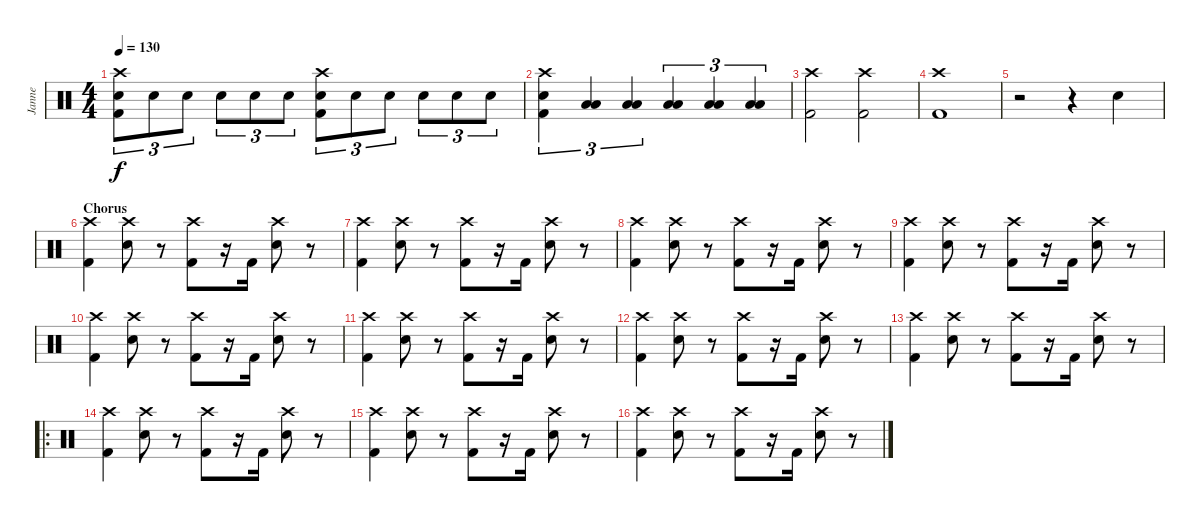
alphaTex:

\track ("Janne" "Janne") {instrument percussion}
\staff {score}
\articulation defaults
\ts (4 4)
\tempo 130
\clef neutral
\ks c
("Crash high (hit)" "Electric Snare (hit)" "Kick (hit) 2").8{tu (3 2) dy f} "Electric Snare (hit)".8{tu (3 2)} "Electric Snare (hit)".8{tu (3 2)} "Electric Snare (hit)".8{tu (3 2)} "Electric Snare (hit)".8{tu (3 2)} "Electric Snare (hit)".8{tu (3 2)} ("Crash high (hit)" "Electric Snare (hit)" "Kick (hit) 2").8{tu (3 2)} "Electric Snare (hit)".8{tu (3 2)} "Electric Snare (hit)".8{tu (3 2)} "Electric Snare (hit)".8{tu (3 2)} "Electric Snare (hit)".8{tu (3 2)} "Electric Snare (hit)".8{tu (3 2)} |
("Crash high (hit)" "Electric Snare (hit)" "Kick (hit) 2").4{tu (3 2)} ("Low Floor Tom (hit)" "Low Tom (hit)").4{tu (3 2)} ("Low Floor Tom (hit)" "Low Tom (hit)").4{tu (3 2)} ("Low Floor Tom (hit)" "Low Tom (hit)").4{tu (3 2)} ("Low Floor Tom (hit)" "Low Tom (hit)").4{tu (3 2)} ("Low Floor Tom (hit)" "Low Tom (hit)").4{tu (3 2)} |
("Crash high (hit)" "Kick (hit) 2").2 ("Crash high (hit)" "Kick (hit) 2").2 |
("Crash high (hit)" "Kick (hit) 2").1 |
r.2 r.4 "Electric Snare (hit)".4 |
\section ("" "Chorus")
("Crash high (hit)" "Kick (hit) 2").4 ("Crash high (hit)" "Electric Snare (hit)").8 r.8 ("Crash high (hit)" "Kick (hit) 2").8 r.16 "Kick (hit) 2".16 ("Crash high (hit)" "Electric Snare (hit)").8 r.8 |
("Crash high (hit)" "Kick (hit) 2").4 ("Crash high (hit)" "Electric Snare (hit)").8 r.8 ("Crash high (hit)" "Kick (hit) 2").8 r.16 "Kick (hit) 2".16 ("Crash high (hit)" "Electric Snare (hit)").8 r.8 |
("Crash high (hit)" "Kick (hit) 2").4 ("Crash high (hit)" "Electric Snare (hit)").8 r.8 ("Crash high (hit)" "Kick (hit) 2").8 r.16 "Kick (hit) 2".16 ("Crash high (hit)" "Electric Snare (hit)").8 r.8 |
("Crash high (hit)" "Kick (hit) 2").4 ("Crash high (hit)" "Electric Snare (hit)").8 r.8 ("Crash high (hit)" "Kick (hit) 2").8 r.16 "Kick (hit) 2".16 ("Crash high (hit)" "Electric Snare (hit)").8 r.8 |
("Crash high (hit)" "Kick (hit) 2").4 ("Crash high (hit)" "Electric Snare (hit)").8 r.8 ("Crash high (hit)" "Kick (hit) 2").8 r.16 "Kick (hit) 2".16 ("Crash high (hit)" "Electric Snare (hit)").8 r.8 |
("Crash high (hit)" "Kick (hit) 2").4 ("Crash high (hit)" "Electric Snare (hit)").8 r.8 ("Crash high (hit)" "Kick (hit) 2").8 r.16 "Kick (hit) 2".16 ("Crash high (hit)" "Electric Snare (hit)").8 r.8 |
("Crash high (hit)" "Kick (hit) 2").4 ("Crash high (hit)" "Electric Snare (hit)").8 r.8 ("Crash high (hit)" "Kick (hit) 2").8 r.16 "Kick (hit) 2".16 ("Crash high (hit)" "Electric Snare (hit)").8 r.8 |
("Crash high (hit)" "Kick (hit) 2").4 ("Crash high (hit)" "Electric Snare (hit)").8 r.8 ("Crash high (hit)" "Kick (hit) 2").8 r.16 "Kick (hit) 2".16 ("Crash high (hit)" "Electric Snare (hit)").8 r.8 |
\ro
("Crash high (hit)" "Kick (hit) 2").4 ("Crash high (hit)" "Electric Snare (hit)").8 r.8 ("Crash high (hit)" "Kick (hit) 2").8 r.16 "Kick (hit) 2".16 ("Crash high (hit)" "Electric Snare (hit)").8 r.8 |
("Crash high (hit)" "Kick (hit) 2").4 ("Crash high (hit)" "Electric Snare (hit)").8 r.8 ("Crash high (hit)" "Kick (hit) 2").8 r.16 "Kick (hit) 2".16 ("Crash high (hit)" "Electric Snare (hit)").8 r.8 |
("Crash high (hit)" "Kick (hit) 2").4 ("Crash high (hit)" "Electric Snare (hit)").8 r.8 ("Crash high (hit)" "Kick (hit) 2").8 r.16 "Kick (hit) 2".16 ("Crash high (hit)" "Electric Snare (hit)").8 r.8
